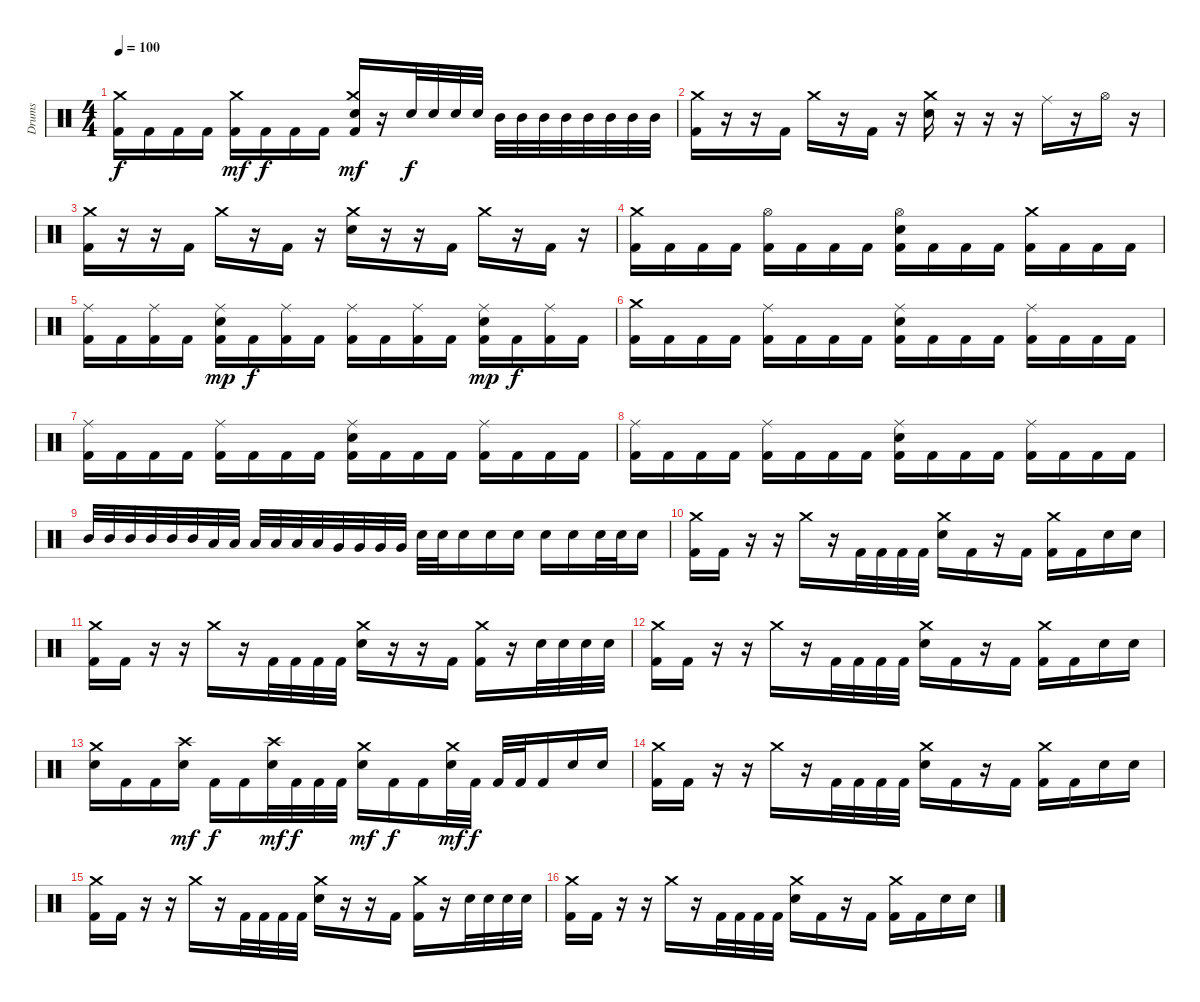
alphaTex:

\track ("Drums" "Drums") {instrument percussion}
\staff {score}
\articulation defaults
\ts (4 4)
\tempo 100
\clef neutral
\ks c
("Kick (hit) 2" "Crash medium (hit)").16{dy f} "Kick (hit) 2".16 "Kick (hit) 2".16 "Kick (hit) 2".16 ("Kick (hit) 2" "Crash medium (hit)").16{dy mf} "Kick (hit) 2".16{dy f} "Kick (hit) 2".16 "Kick (hit) 2".16 ("Kick (hit) 2" "Crash medium (hit)" "Electric Snare (hit)").16{dy mf} r.16 "Electric Snare (hit)".32{dy f} "Electric Snare (hit)".32 "Electric Snare (hit)".32 "Electric Snare (hit)".32 "Mid Tom (hit)".32 "Mid Tom (hit)".32 "Mid Tom (hit)".32 "Mid Tom (hit)".32 "Mid Tom (hit)".32 "Mid Tom (hit)".32 "Mid Tom (hit)".32 "Mid Tom (hit)".32 |
("Kick (hit) 2" "Crash medium (hit)").16 r.16 r.16 "Kick (hit) 2".16 "Crash medium (hit)".16 r.16 "Kick (hit) 2".16 r.16 ("Electric Snare (hit)" "Crash medium (hit)").16 r.16 r.16 r.16 "Ride (middle)".16 r.16 "Hi-Hat (open)".16 r.16 |
("Kick (hit) 2" "Crash medium (hit)").16 r.16 r.16 "Kick (hit) 2".16 "Crash medium (hit)".16 r.16 "Kick (hit) 2".16 r.16 ("Crash medium (hit)" "Electric Snare (hit)").16 r.16 r.16 "Kick (hit) 2".16 "Crash medium (hit)".16 r.16 "Kick (hit) 2".16 r.16 |
("Kick (hit) 2" "Crash medium (hit)").16 "Kick (hit) 2".16 "Kick (hit) 2".16 "Kick (hit) 2".16 ("Kick (hit) 2" "Hi-Hat (open)").16 "Kick (hit) 2".16 "Kick (hit) 2".16 "Kick (hit) 2".16 ("Kick (hit) 2" "Hi-Hat (open)" "Electric Snare (hit)").16 "Kick (hit) 2".16 "Kick (hit) 2".16 "Kick (hit) 2".16 ("Kick (hit) 2" "Crash medium (hit)").16 "Kick (hit) 2".16 "Kick (hit) 2".16 "Kick (hit) 2".16 |
("Kick (hit) 2" "Ride (middle)").16 "Kick (hit) 2".16 ("Kick (hit) 2" "Ride (middle)").16 "Kick (hit) 2".16 ("Kick (hit) 2" "Ride (middle)" "Electric Snare (hit)").16{dy mp} "Kick (hit) 2".16{dy f} ("Kick (hit) 2" "Ride (middle)").16 "Kick (hit) 2".16 ("Kick (hit) 2" "Ride (middle)").16 "Kick (hit) 2".16 ("Kick (hit) 2" "Ride (middle)").16 "Kick (hit) 2".16 ("Kick (hit) 2" "Ride (middle)" "Electric Snare (hit)").16{dy mp} "Kick (hit) 2".16{dy f} ("Kick (hit) 2" "Ride (middle)").16 "Kick (hit) 2".16 |
("Kick (hit) 2" "Crash medium (hit)").16 "Kick (hit) 2".16 "Kick (hit) 2".16 "Kick (hit) 2".16 ("Kick (hit) 2" "Ride (middle)").16 "Kick (hit) 2".16 "Kick (hit) 2".16 "Kick (hit) 2".16 ("Kick (hit) 2" "Ride (middle)" "Electric Snare (hit)").16 "Kick (hit) 2".16 "Kick (hit) 2".16 "Kick (hit) 2".16 ("Kick (hit) 2" "Ride (middle)").16 "Kick (hit) 2".16 "Kick (hit) 2".16 "Kick (hit) 2".16 |
("Kick (hit) 2" "Ride (middle)").16 "Kick (hit) 2".16 "Kick (hit) 2".16 "Kick (hit) 2".16 ("Kick (hit) 2" "Ride (middle)").16 "Kick (hit) 2".16 "Kick (hit) 2".16 "Kick (hit) 2".16 ("Kick (hit) 2" "Ride (middle)" "Electric Snare (hit)").16 "Kick (hit) 2".16 "Kick (hit) 2".16 "Kick (hit) 2".16 ("Kick (hit) 2" "Ride (middle)").16 "Kick (hit) 2".16 "Kick (hit) 2".16 "Kick (hit) 2".16 |
("Kick (hit) 2" "Ride (middle)").16 "Kick (hit) 2".16 "Kick (hit) 2".16 "Kick (hit) 2".16 ("Kick (hit) 2" "Ride (middle)").16 "Kick (hit) 2".16 "Kick (hit) 2".16 "Kick (hit) 2".16 ("Kick (hit) 2" "Ride (middle)" "Electric Snare (hit)").16 "Kick (hit) 2".16 "Kick (hit) 2".16 "Kick (hit) 2".16 ("Kick (hit) 2" "Ride (middle)").16 "Kick (hit) 2".16 "Kick (hit) 2".16 "Kick (hit) 2".16 |
"Mid Tom (hit)".32 "Mid Tom (hit)".32 "Mid Tom (hit)".32 "Mid Tom (hit)".32 "Mid Tom (hit)".32 "Mid Tom (hit)".32 "Low Tom (hit)".32 "Low Tom (hit)".32 "Low Tom (hit)".32 "Low Tom (hit)".32 "Low Tom (hit)".32 "Low Tom (hit)".32 "Very Low Tom (hit)".32 "Very Low Tom (hit)".32 "Very Low Tom (hit)".32 "Very Low Tom (hit)".32 "Electric Snare (hit)".32 "Electric Snare (hit)".32 "Electric Snare (hit)".16 "Electric Snare (hit)".16 "Electric Snare (hit)".16 "Electric Snare (hit)".16 "Electric Snare (hit)".16 "Electric Snare (hit)".32 "Electric Snare (hit)".32 "Electric Snare (hit)".16 |
("Kick (hit) 2" "Crash medium (hit)").16 "Kick (hit) 2".16 r.16 r.16 "Crash medium (hit)".16 r.16 "Kick (hit) 2".32 "Kick (hit) 2".32 "Kick (hit) 2".32 "Kick (hit) 2".32 ("Electric Snare (hit)" "Crash medium (hit)").16 "Kick (hit) 2".16 r.16 "Kick (hit) 2".16 ("Kick (hit) 2" "Crash medium (hit)").16 "Kick (hit) 2".16 "Electric Snare (hit)".16 "Electric Snare (hit)".16 |
("Kick (hit) 2" "Crash medium (hit)").16 "Kick (hit) 2".16 r.16 r.16 "Crash medium (hit)".16 r.16 "Kick (hit) 2".32 "Kick (hit) 2".32 "Kick (hit) 2".32 "Kick (hit) 2".32 ("Electric Snare (hit)" "Crash medium (hit)").16 r.16 r.16 "Kick (hit) 2".16 ("Kick (hit) 2" "Crash medium (hit)").16 r.16 "Electric Snare (hit)".32 "Electric Snare (hit)".32 "Electric Snare (hit)".32 "Electric Snare (hit)".32 |
("Kick (hit) 2" "Crash medium (hit)").16 "Kick (hit) 2".16 r.16 r.16 "Crash medium (hit)".16 r.16 "Kick (hit) 2".32 "Kick (hit) 2".32 "Kick (hit) 2".32 "Kick (hit) 2".32 ("Electric Snare (hit)" "Crash medium (hit)").16 "Kick (hit) 2".16 r.16 "Kick (hit) 2".16 ("Kick (hit) 2" "Crash medium (hit)").16 "Kick (hit) 2".16 "Electric Snare (hit)".16 "Electric Snare (hit)".16 |
("Electric Snare (hit)" "Crash medium (hit)").16 "Kick (hit) 2".16 "Kick (hit) 2".16 ("Electric Snare (hit)" "Crash high (hit)").16{dy mf} "Kick (hit) 2".16{dy f} "Kick (hit) 2".16 ("Electric Snare (hit)" "Crash high (hit)").32{dy mf} "Kick (hit) 2".32{dy f} "Kick (hit) 2".32 "Kick (hit) 2".32 ("Electric Snare (hit)" "Crash medium (hit)").16{dy mf} "Kick (hit) 2".16{dy f} "Kick (hit) 2".16 ("Electric Snare (hit)" "Crash medium (hit)").32{dy mf} "Kick (hit) 2".32{dy f} "Kick (hit) 2".32 "Kick (hit) 2".32 "Kick (hit) 2".16 "Electric Snare (hit)".16 "Electric Snare (hit)".16 |
("Kick (hit) 2" "Crash medium (hit)").16 "Kick (hit) 2".16 r.16 r.16 "Crash medium (hit)".16 r.16 "Kick (hit) 2".32 "Kick (hit) 2".32 "Kick (hit) 2".32 "Kick (hit) 2".32 ("Electric Snare (hit)" "Crash medium (hit)").16 "Kick (hit) 2".16 r.16 "Kick (hit) 2".16 ("Kick (hit) 2" "Crash medium (hit)").16 "Kick (hit) 2".16 "Electric Snare (hit)".16 "Electric Snare (hit)".16 |
("Kick (hit) 2" "Crash medium (hit)").16 "Kick (hit) 2".16 r.16 r.16 "Crash medium (hit)".16 r.16 "Kick (hit) 2".32 "Kick (hit) 2".32 "Kick (hit) 2".32 "Kick (hit) 2".32 ("Electric Snare (hit)" "Crash medium (hit)").16 r.16 r.16 "Kick (hit) 2".16 ("Kick (hit) 2" "Crash medium (hit)").16 r.16 "Electric Snare (hit)".32 "Electric Snare (hit)".32 "Electric Snare (hit)".32 "Electric Snare (hit)".32 |
("Kick (hit) 2" "Crash medium (hit)").16 "Kick (hit) 2".16 r.16 r.16 "Crash medium (hit)".16 r.16 "Kick (hit) 2".32 "Kick (hit) 2".32 "Kick (hit) 2".32 "Kick (hit) 2".32 ("Electric Snare (hit)" "Crash medium (hit)").16 "Kick (hit) 2".16 r.16 "Kick (hit) 2".16 ("Kick (hit) 2" "Crash medium (hit)").16 "Kick (hit) 2".16 "Electric Snare (hit)".16 "Electric Snare (hit)".16
